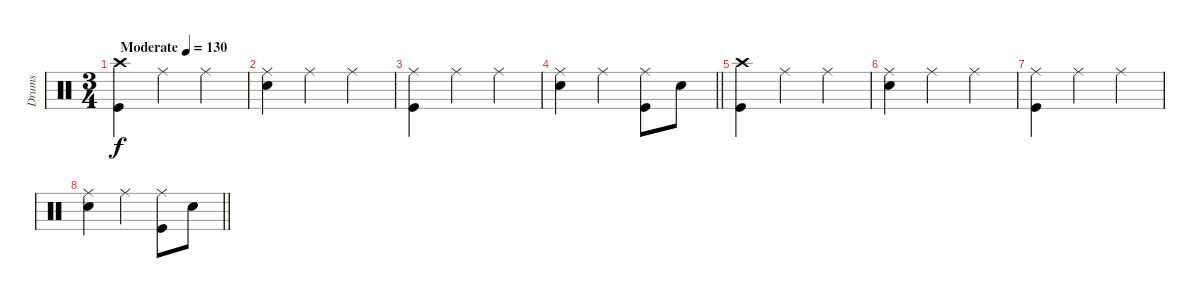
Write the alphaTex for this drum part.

\track ("Drums" "Drums") {instrument percussion}
\staff
\articulation defaults
\ts (3 4)
\tempo (130 "Moderate")
\clef neutral
\ks c
("Crash high (hit)" "Kick (hit)").4{dy f} "Ride (middle)".4 "Ride (middle)".4 |
("Ride (middle)" "Electric Snare (hit)").4 "Ride (middle)".4 "Ride (middle)".4 |
("Ride (middle)" "Kick (hit)").4 "Ride (middle)".4 "Ride (middle)".4 |
\barLineRight lightlight
("Ride (middle)" "Electric Snare (hit)").4 "Ride (middle)".4 ("Ride (middle)" "Kick (hit)").8 "Electric Snare (hit)".8 |
("Crash high (hit)" "Kick (hit)").4 "Ride (middle)".4 "Ride (middle)".4 |
("Ride (middle)" "Electric Snare (hit)").4 "Ride (middle)".4 "Ride (middle)".4 |
("Ride (middle)" "Kick (hit)").4 "Ride (middle)".4 "Ride (middle)".4 |
\barLineRight lightlight
("Ride (middle)" "Electric Snare (hit)").4 "Ride (middle)".4 ("Ride (middle)" "Kick (hit)").8 "Electric Snare (hit)".8
